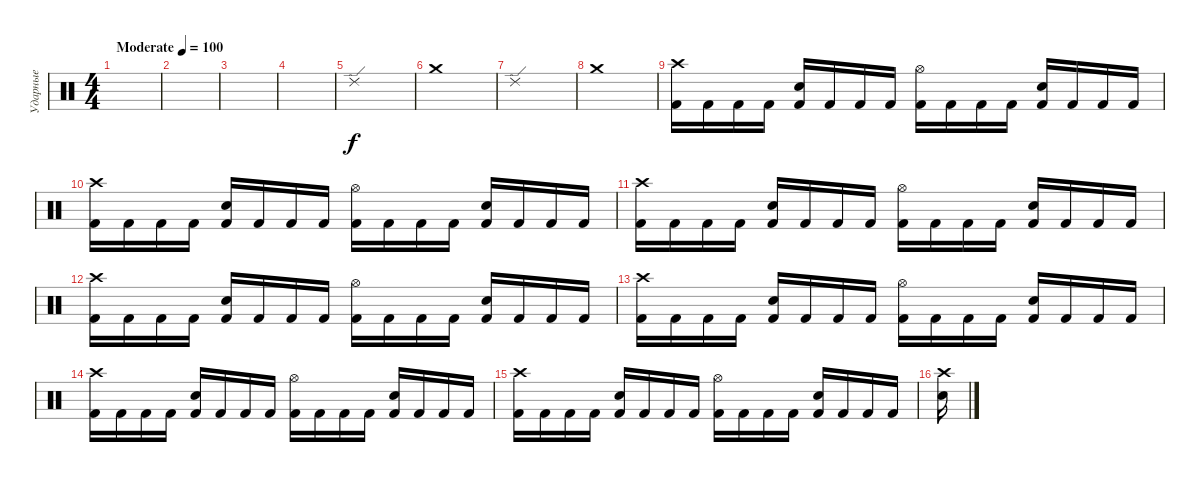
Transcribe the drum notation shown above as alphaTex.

\track ("Ударные" "Ударные") {instrument percussion}
\staff {score}
\articulation defaults
\ts (4 4)
\tempo (100 "Moderate")
\clef neutral
\ks c
|
|
|
|
"Ride (edge) 2".1 |
"Crash medium (hit)".1 |
"Ride (edge) 2".1 |
"Crash medium (hit)".1 |
("Kick (hit) 2" "Crash high (hit)").16 "Kick (hit) 2".16 "Kick (hit) 2".16 "Kick (hit) 2".16 ("Kick (hit) 2" "Snare (hit) 2").16 "Kick (hit) 2".16 "Kick (hit) 2".16 "Kick (hit) 2".16 ("Kick (hit) 2" "Hi-Hat (open)").16 "Kick (hit) 2".16 "Kick (hit) 2".16 "Kick (hit) 2".16 ("Kick (hit) 2" "Snare (hit) 2").16 "Kick (hit) 2".16 "Kick (hit) 2".16 "Kick (hit) 2".16 |
("Kick (hit) 2" "Crash high (hit)").16 "Kick (hit) 2".16 "Kick (hit) 2".16 "Kick (hit) 2".16 ("Kick (hit) 2" "Snare (hit) 2").16 "Kick (hit) 2".16 "Kick (hit) 2".16 "Kick (hit) 2".16 ("Kick (hit) 2" "Hi-Hat (open)").16 "Kick (hit) 2".16 "Kick (hit) 2".16 "Kick (hit) 2".16 ("Kick (hit) 2" "Snare (hit) 2").16 "Kick (hit) 2".16 "Kick (hit) 2".16 "Kick (hit) 2".16 |
("Kick (hit) 2" "Crash high (hit)").16 "Kick (hit) 2".16 "Kick (hit) 2".16 "Kick (hit) 2".16 ("Kick (hit) 2" "Snare (hit) 2").16 "Kick (hit) 2".16 "Kick (hit) 2".16 "Kick (hit) 2".16 ("Kick (hit) 2" "Hi-Hat (open)").16 "Kick (hit) 2".16 "Kick (hit) 2".16 "Kick (hit) 2".16 ("Kick (hit) 2" "Snare (hit) 2").16 "Kick (hit) 2".16 "Kick (hit) 2".16 "Kick (hit) 2".16 |
("Kick (hit) 2" "Crash high (hit)").16 "Kick (hit) 2".16 "Kick (hit) 2".16 "Kick (hit) 2".16 ("Kick (hit) 2" "Snare (hit) 2").16 "Kick (hit) 2".16 "Kick (hit) 2".16 "Kick (hit) 2".16 ("Kick (hit) 2" "Hi-Hat (open)").16 "Kick (hit) 2".16 "Kick (hit) 2".16 "Kick (hit) 2".16 ("Kick (hit) 2" "Snare (hit) 2").16 "Kick (hit) 2".16 "Kick (hit) 2".16 "Kick (hit) 2".16 |
("Kick (hit) 2" "Crash high (hit)").16 "Kick (hit) 2".16 "Kick (hit) 2".16 "Kick (hit) 2".16 ("Kick (hit) 2" "Snare (hit) 2").16 "Kick (hit) 2".16 "Kick (hit) 2".16 "Kick (hit) 2".16 ("Kick (hit) 2" "Hi-Hat (open)").16 "Kick (hit) 2".16 "Kick (hit) 2".16 "Kick (hit) 2".16 ("Kick (hit) 2" "Snare (hit) 2").16 "Kick (hit) 2".16 "Kick (hit) 2".16 "Kick (hit) 2".16 |
("Kick (hit) 2" "Crash high (hit)").16 "Kick (hit) 2".16 "Kick (hit) 2".16 "Kick (hit) 2".16 ("Kick (hit) 2" "Snare (hit) 2").16 "Kick (hit) 2".16 "Kick (hit) 2".16 "Kick (hit) 2".16 ("Kick (hit) 2" "Hi-Hat (open)").16 "Kick (hit) 2".16 "Kick (hit) 2".16 "Kick (hit) 2".16 ("Kick (hit) 2" "Snare (hit) 2").16 "Kick (hit) 2".16 "Kick (hit) 2".16 "Kick (hit) 2".16 |
("Kick (hit) 2" "Crash high (hit)").16 "Kick (hit) 2".16 "Kick (hit) 2".16 "Kick (hit) 2".16 ("Kick (hit) 2" "Snare (hit) 2").16 "Kick (hit) 2".16 "Kick (hit) 2".16 "Kick (hit) 2".16 ("Kick (hit) 2" "Hi-Hat (open)").16 "Kick (hit) 2".16 "Kick (hit) 2".16 "Kick (hit) 2".16 ("Kick (hit) 2" "Snare (hit) 2").16 "Kick (hit) 2".16 "Kick (hit) 2".16 "Kick (hit) 2".16 |
("Crash high (hit)" "Snare (hit) 2").16
